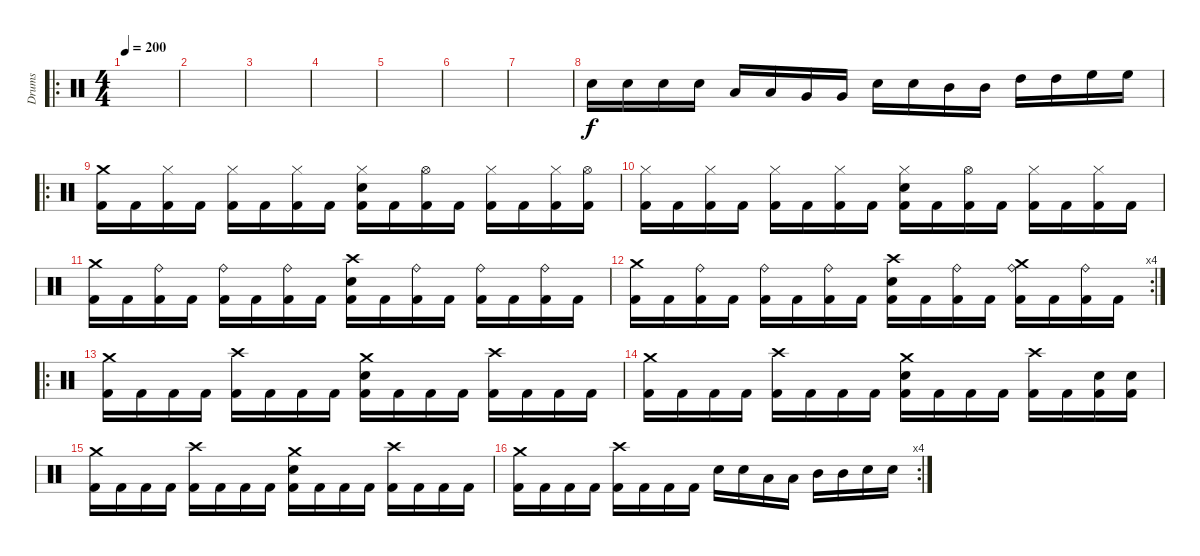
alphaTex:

\track ("Drums" "Drums") {instrument percussion}
\staff {score}
\articulation defaults
\ro
\ts (4 4)
\tempo 200
\clef neutral
\ks c
|
|
|
|
|
|
|
"Electric Snare (hit)".16 "Electric Snare (hit)".16 "Electric Snare (hit)".16 "Electric Snare (hit)".16 "Low Floor Tom (hit)".16 "Low Floor Tom (hit)".16 "Very Low Tom (hit)".16 "Very Low Tom (hit)".16 "Electric Snare (hit)".16 "Electric Snare (hit)".16 "Mid Tom (hit)".16 "Mid Tom (hit)".16 "High Tom (hit)".16 "High Tom (hit)".16 "High Floor Tom (hit)".16 "High Floor Tom (hit)".16 |
\ro
("Kick (hit) 2" "Crash medium (hit)").16 "Kick (hit) 2".16 ("Kick (hit) 2" "Hi-Hat (closed)").16 "Kick (hit) 2".16 ("Kick (hit) 2" "Hi-Hat (closed)").16 "Kick (hit) 2".16 ("Kick (hit) 2" "Hi-Hat (closed)").16 "Kick (hit) 2".16 ("Kick (hit) 2" "Electric Snare (hit)" "Hi-Hat (closed)").16 "Kick (hit) 2".16 ("Kick (hit) 2" "Hi-Hat (open)").16 "Kick (hit) 2".16 ("Kick (hit) 2" "Hi-Hat (closed)").16 "Kick (hit) 2".16 ("Kick (hit) 2" "Hi-Hat (closed)").16 ("Kick (hit) 2" "Hi-Hat (open)").16 |
("Kick (hit) 2" "Hi-Hat (closed)").16 "Kick (hit) 2".16 ("Kick (hit) 2" "Hi-Hat (closed)").16 "Kick (hit) 2".16 ("Kick (hit) 2" "Hi-Hat (closed)").16 "Kick (hit) 2".16 ("Kick (hit) 2" "Hi-Hat (closed)").16 "Kick (hit) 2".16 ("Kick (hit) 2" "Electric Snare (hit)" "Hi-Hat (closed)").16 "Kick (hit) 2".16 ("Kick (hit) 2" "Hi-Hat (open)").16 "Kick (hit) 2".16 ("Kick (hit) 2" "Hi-Hat (closed)").16 "Kick (hit) 2".16 ("Kick (hit) 2" "Hi-Hat (closed)").16 "Kick (hit) 2".16 |
("Kick (hit) 2" "Crash medium (hit)").16 "Kick (hit) 2".16 ("Kick (hit) 2" "Ride (bell)").16 "Kick (hit) 2".16 ("Kick (hit) 2" "Ride (bell)").16 "Kick (hit) 2".16 ("Kick (hit) 2" "Ride (bell)").16 "Kick (hit) 2".16 ("Kick (hit) 2" "Electric Snare (hit)" "Crash high (hit)").16 "Kick (hit) 2".16 ("Kick (hit) 2" "Ride (bell)").16 "Kick (hit) 2".16 ("Kick (hit) 2" "Ride (bell)").16 "Kick (hit) 2".16 ("Kick (hit) 2" "Ride (bell)").16 "Kick (hit) 2".16 |
\rc 4
("Kick (hit) 2" "Crash medium (hit)").16 "Kick (hit) 2".16 ("Kick (hit) 2" "Ride (bell)").16 "Kick (hit) 2".16 ("Kick (hit) 2" "Ride (bell)").16 "Kick (hit) 2".16 ("Kick (hit) 2" "Ride (bell)").16 "Kick (hit) 2".16 ("Kick (hit) 2" "Electric Snare (hit)" "Crash high (hit)").16 "Kick (hit) 2".16 ("Kick (hit) 2" "Ride (bell)").16 "Kick (hit) 2".16 ("Kick (hit) 2" "Ride (bell)" "Crash medium (hit)").16 "Kick (hit) 2".16 ("Kick (hit) 2" "Ride (bell)").16 "Kick (hit) 2".16 |
\ro
("Kick (hit) 2" "Crash medium (hit)").16 "Kick (hit) 2".16 "Kick (hit) 2".16 "Kick (hit) 2".16 ("Kick (hit) 2" "Crash high (hit)").16 "Kick (hit) 2".16 "Kick (hit) 2".16 "Kick (hit) 2".16 ("Kick (hit) 2" "Electric Snare (hit)" "Crash medium (hit)").16 "Kick (hit) 2".16 "Kick (hit) 2".16 "Kick (hit) 2".16 ("Kick (hit) 2" "Crash high (hit)").16 "Kick (hit) 2".16 "Kick (hit) 2".16 "Kick (hit) 2".16 |
("Kick (hit) 2" "Crash medium (hit)").16 "Kick (hit) 2".16 "Kick (hit) 2".16 "Kick (hit) 2".16 ("Kick (hit) 2" "Crash high (hit)").16 "Kick (hit) 2".16 "Kick (hit) 2".16 "Kick (hit) 2".16 ("Kick (hit) 2" "Electric Snare (hit)" "Crash medium (hit)").16 "Kick (hit) 2".16 "Kick (hit) 2".16 "Kick (hit) 2".16 ("Kick (hit) 2" "Crash high (hit)").16 "Kick (hit) 2".16 ("Kick (hit) 2" "Electric Snare (hit)").16 ("Kick (hit) 2" "Electric Snare (hit)").16 |
("Kick (hit) 2" "Crash medium (hit)").16 "Kick (hit) 2".16 "Kick (hit) 2".16 "Kick (hit) 2".16 ("Kick (hit) 2" "Crash high (hit)").16 "Kick (hit) 2".16 "Kick (hit) 2".16 "Kick (hit) 2".16 ("Kick (hit) 2" "Electric Snare (hit)" "Crash medium (hit)").16 "Kick (hit) 2".16 "Kick (hit) 2".16 "Kick (hit) 2".16 ("Kick (hit) 2" "Crash high (hit)").16 "Kick (hit) 2".16 "Kick (hit) 2".16 "Kick (hit) 2".16 |
\rc 4
("Kick (hit) 2" "Crash medium (hit)").16 "Kick (hit) 2".16 "Kick (hit) 2".16 "Kick (hit) 2".16 ("Kick (hit) 2" "Crash high (hit)").16 "Kick (hit) 2".16 "Kick (hit) 2".16 "Kick (hit) 2".16 "Electric Snare (hit)".16 "Electric Snare (hit)".16 "Low Tom (hit)".16 "Low Tom (hit)".16 "Mid Tom (hit)".16 "Mid Tom (hit)".16 "Electric Snare (hit)".16 "Electric Snare (hit)".16
